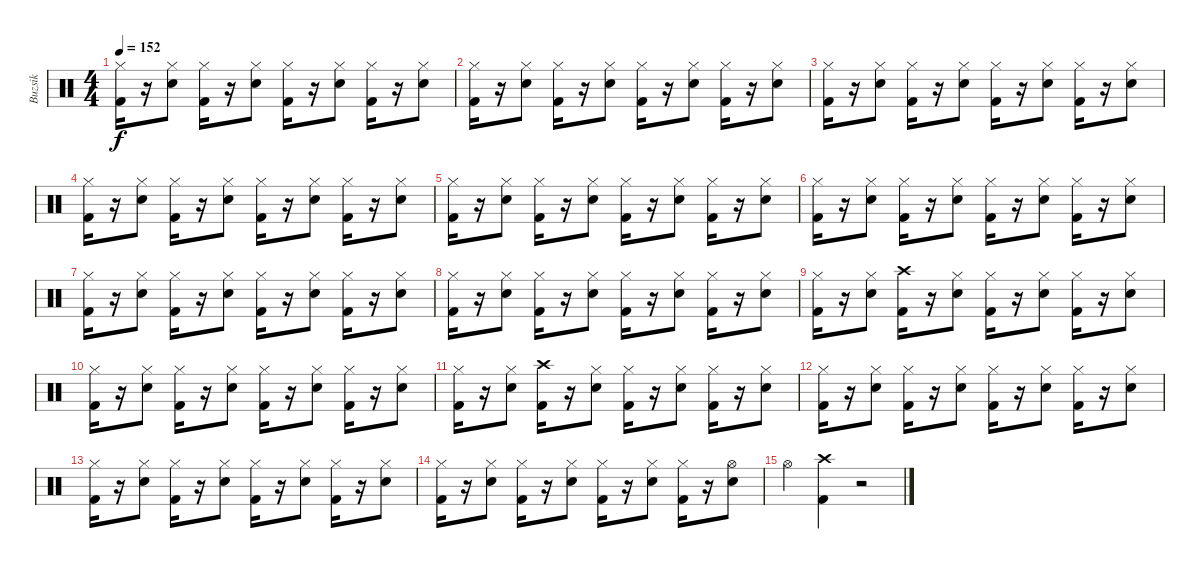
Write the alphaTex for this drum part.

\track ("Buzsik" "Buzsik") {instrument percussion}
\staff {score}
\articulation defaults
\ts (4 4)
\tempo 152
\clef neutral
\ks c
("Hi-Hat (closed)" "Kick (hit) 2").16{dy f} r.16 ("Hi-Hat (closed)" "Electric Snare (hit)").8 ("Hi-Hat (closed)" "Kick (hit) 2").16 r.16 ("Hi-Hat (closed)" "Electric Snare (hit)").8 ("Hi-Hat (closed)" "Kick (hit) 2").16 r.16 ("Hi-Hat (closed)" "Electric Snare (hit)").8 ("Hi-Hat (closed)" "Kick (hit) 2").16 r.16 ("Hi-Hat (closed)" "Electric Snare (hit)").8 |
("Hi-Hat (closed)" "Kick (hit) 2").16 r.16 ("Hi-Hat (closed)" "Electric Snare (hit)").8 ("Hi-Hat (closed)" "Kick (hit) 2").16 r.16 ("Hi-Hat (closed)" "Electric Snare (hit)").8 ("Hi-Hat (closed)" "Kick (hit) 2").16 r.16 ("Hi-Hat (closed)" "Electric Snare (hit)").8 ("Hi-Hat (closed)" "Kick (hit) 2").16 r.16 ("Hi-Hat (closed)" "Electric Snare (hit)").8 |
("Hi-Hat (closed)" "Kick (hit) 2").16 r.16 ("Hi-Hat (closed)" "Electric Snare (hit)").8 ("Hi-Hat (closed)" "Kick (hit) 2").16 r.16 ("Hi-Hat (closed)" "Electric Snare (hit)").8 ("Hi-Hat (closed)" "Kick (hit) 2").16 r.16 ("Hi-Hat (closed)" "Electric Snare (hit)").8 ("Hi-Hat (closed)" "Kick (hit) 2").16 r.16 ("Hi-Hat (closed)" "Electric Snare (hit)").8 |
("Hi-Hat (closed)" "Kick (hit) 2").16 r.16 ("Hi-Hat (closed)" "Electric Snare (hit)").8 ("Hi-Hat (closed)" "Kick (hit) 2").16 r.16 ("Hi-Hat (closed)" "Electric Snare (hit)").8 ("Hi-Hat (closed)" "Kick (hit) 2").16 r.16 ("Hi-Hat (closed)" "Electric Snare (hit)").8 ("Hi-Hat (closed)" "Kick (hit) 2").16 r.16 ("Hi-Hat (closed)" "Electric Snare (hit)").8 |
("Hi-Hat (closed)" "Kick (hit) 2").16 r.16 ("Hi-Hat (closed)" "Electric Snare (hit)").8 ("Hi-Hat (closed)" "Kick (hit) 2").16 r.16 ("Hi-Hat (closed)" "Electric Snare (hit)").8 ("Hi-Hat (closed)" "Kick (hit) 2").16 r.16 ("Hi-Hat (closed)" "Electric Snare (hit)").8 ("Hi-Hat (closed)" "Kick (hit) 2").16 r.16 ("Hi-Hat (closed)" "Electric Snare (hit)").8 |
("Hi-Hat (closed)" "Kick (hit) 2").16 r.16 ("Hi-Hat (closed)" "Electric Snare (hit)").8 ("Hi-Hat (closed)" "Kick (hit) 2").16 r.16 ("Hi-Hat (closed)" "Electric Snare (hit)").8 ("Hi-Hat (closed)" "Kick (hit) 2").16 r.16 ("Hi-Hat (closed)" "Electric Snare (hit)").8 ("Hi-Hat (closed)" "Kick (hit) 2").16 r.16 ("Hi-Hat (closed)" "Electric Snare (hit)").8 |
("Hi-Hat (closed)" "Kick (hit) 2").16 r.16 ("Hi-Hat (closed)" "Electric Snare (hit)").8 ("Hi-Hat (closed)" "Kick (hit) 2").16 r.16 ("Hi-Hat (closed)" "Electric Snare (hit)").8 ("Hi-Hat (closed)" "Kick (hit) 2").16 r.16 ("Hi-Hat (closed)" "Electric Snare (hit)").8 ("Hi-Hat (closed)" "Kick (hit) 2").16 r.16 ("Hi-Hat (closed)" "Electric Snare (hit)").8 |
("Hi-Hat (closed)" "Kick (hit) 2").16 r.16 ("Hi-Hat (closed)" "Electric Snare (hit)").8 ("Hi-Hat (closed)" "Kick (hit) 2").16 r.16 ("Hi-Hat (closed)" "Electric Snare (hit)").8 ("Hi-Hat (closed)" "Kick (hit) 2").16 r.16 ("Hi-Hat (closed)" "Electric Snare (hit)").8 ("Hi-Hat (closed)" "Kick (hit) 2").16 r.16 ("Hi-Hat (closed)" "Electric Snare (hit)").8 |
("Hi-Hat (closed)" "Kick (hit) 2").16 r.16 ("Hi-Hat (closed)" "Electric Snare (hit)").8 ("Crash high (hit)" "Kick (hit) 2").16 r.16 ("Hi-Hat (closed)" "Electric Snare (hit)").8 ("Hi-Hat (closed)" "Kick (hit) 2").16 r.16 ("Hi-Hat (closed)" "Electric Snare (hit)").8 ("Hi-Hat (closed)" "Kick (hit) 2").16 r.16 ("Hi-Hat (closed)" "Electric Snare (hit)").8 |
("Hi-Hat (closed)" "Kick (hit) 2").16 r.16 ("Hi-Hat (closed)" "Electric Snare (hit)").8 ("Hi-Hat (closed)" "Kick (hit) 2").16 r.16 ("Hi-Hat (closed)" "Electric Snare (hit)").8 ("Hi-Hat (closed)" "Kick (hit) 2").16 r.16 ("Hi-Hat (closed)" "Electric Snare (hit)").8 ("Hi-Hat (closed)" "Kick (hit) 2").16 r.16 ("Hi-Hat (closed)" "Electric Snare (hit)").8 |
("Hi-Hat (closed)" "Kick (hit) 2").16 r.16 ("Hi-Hat (closed)" "Electric Snare (hit)").8 ("Crash high (hit)" "Kick (hit) 2").16 r.16 ("Hi-Hat (closed)" "Electric Snare (hit)").8 ("Hi-Hat (closed)" "Kick (hit) 2").16 r.16 ("Hi-Hat (closed)" "Electric Snare (hit)").8 ("Hi-Hat (closed)" "Kick (hit) 2").16 r.16 ("Hi-Hat (closed)" "Electric Snare (hit)").8 |
("Hi-Hat (closed)" "Kick (hit) 2").16 r.16 ("Hi-Hat (closed)" "Electric Snare (hit)").8 ("Hi-Hat (closed)" "Kick (hit) 2").16 r.16 ("Hi-Hat (closed)" "Electric Snare (hit)").8 ("Hi-Hat (closed)" "Kick (hit) 2").16 r.16 ("Hi-Hat (closed)" "Electric Snare (hit)").8 ("Hi-Hat (closed)" "Kick (hit) 2").16 r.16 ("Hi-Hat (closed)" "Electric Snare (hit)").8 |
("Hi-Hat (closed)" "Kick (hit) 2").16 r.16 ("Hi-Hat (closed)" "Electric Snare (hit)").8 ("Hi-Hat (closed)" "Kick (hit) 2").16 r.16 ("Hi-Hat (closed)" "Electric Snare (hit)").8 ("Hi-Hat (closed)" "Kick (hit) 2").16 r.16 ("Hi-Hat (closed)" "Electric Snare (hit)").8 ("Hi-Hat (closed)" "Kick (hit) 2").16 r.16 ("Hi-Hat (closed)" "Electric Snare (hit)").8 |
("Hi-Hat (closed)" "Kick (hit) 2").16 r.16 ("Hi-Hat (closed)" "Electric Snare (hit)").8 ("Hi-Hat (closed)" "Kick (hit) 2").16 r.16 ("Hi-Hat (closed)" "Electric Snare (hit)").8 ("Hi-Hat (closed)" "Kick (hit) 2").16 r.16 ("Hi-Hat (closed)" "Electric Snare (hit)").8 ("Hi-Hat (closed)" "Kick (hit) 2").16 r.16 ("Hi-Hat (open)" "Electric Snare (hit)").8 |
"Hi-Hat (open)".4 ("Crash high (hit)" "Kick (hit) 2").4 r.2
